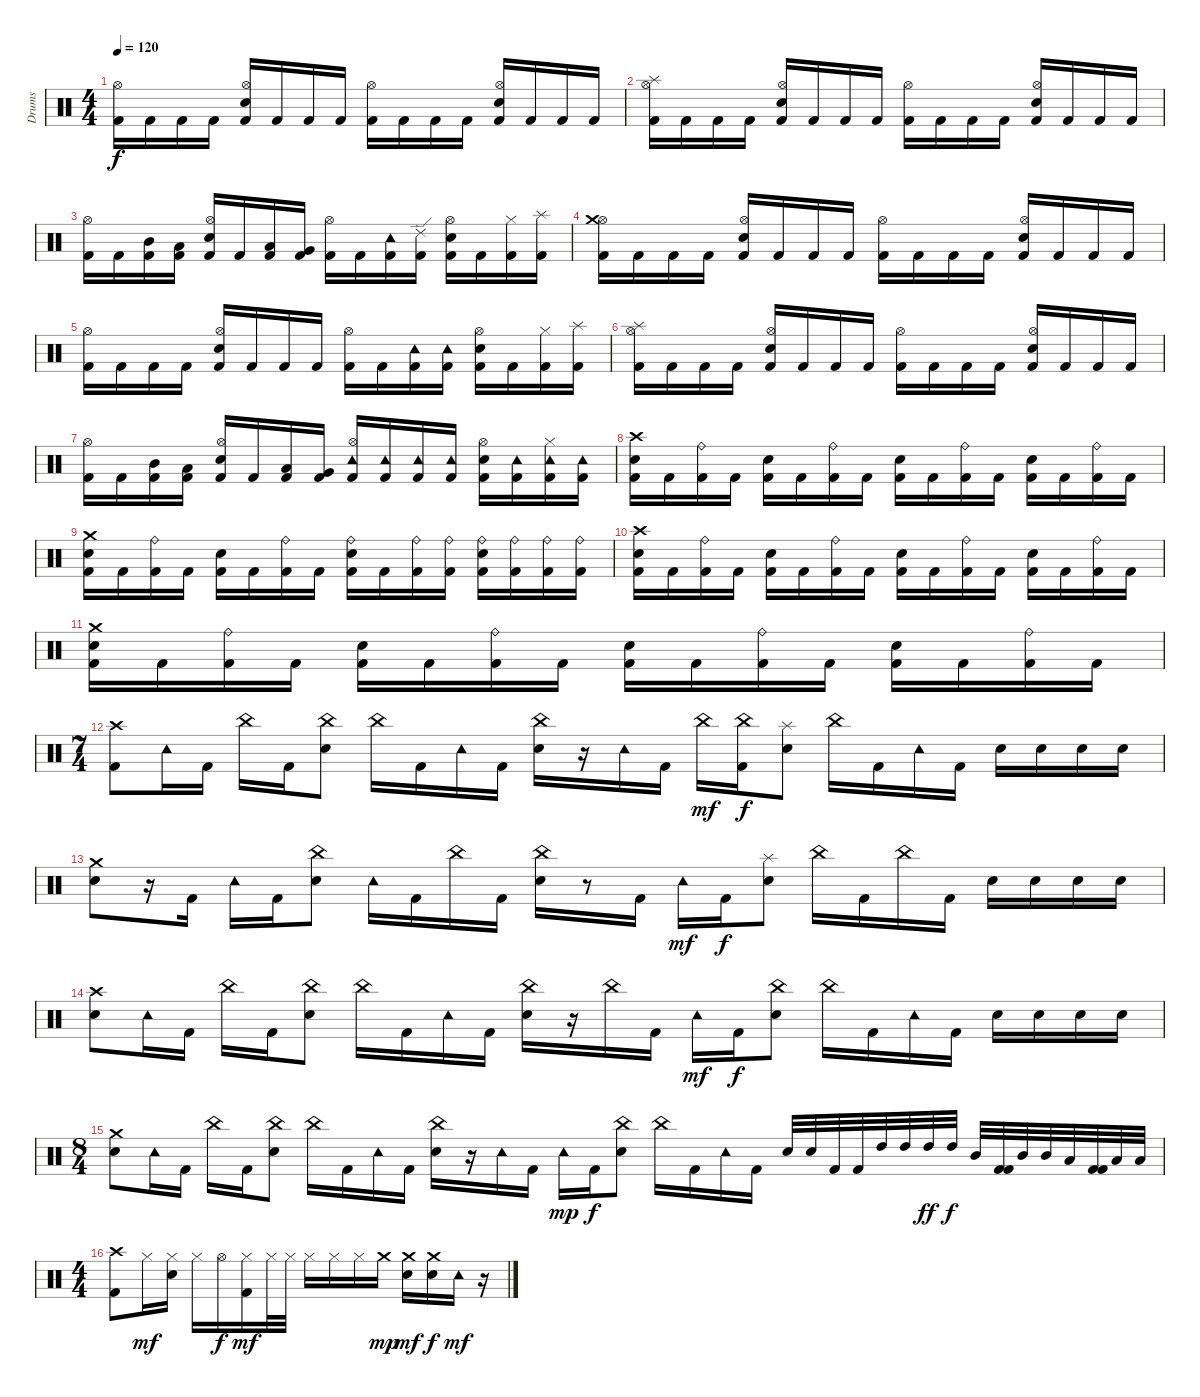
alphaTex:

\track ("Drums" "Drums") {instrument percussion}
\staff {score}
\articulation defaults
\ts (4 4)
\tempo 120
\clef neutral
\ks c
("Kick (hit) 2" "Hi-Hat (open)").16{dy f} "Kick (hit) 2".16 "Kick (hit) 2".16 "Kick (hit) 2".16 ("Kick (hit) 2" "Electric Snare (hit)" "Hi-Hat (open)").16 "Kick (hit) 2".16 "Kick (hit) 2".16 "Kick (hit) 2".16 ("Kick (hit) 2" "Hi-Hat (open)").16 "Kick (hit) 2".16 "Kick (hit) 2".16 "Kick (hit) 2".16 ("Kick (hit) 2" "Electric Snare (hit)" "Hi-Hat (open)").16 "Kick (hit) 2".16 "Kick (hit) 2".16 "Kick (hit) 2".16 |
("Kick (hit) 2" "Splash (hit)" "Hi-Hat (open)").16 "Kick (hit) 2".16 "Kick (hit) 2".16 "Kick (hit) 2".16 ("Kick (hit) 2" "Electric Snare (hit)" "Hi-Hat (open)").16 "Kick (hit) 2".16 "Kick (hit) 2".16 "Kick (hit) 2".16 ("Kick (hit) 2" "Hi-Hat (open)").16 "Kick (hit) 2".16 "Kick (hit) 2".16 "Kick (hit) 2".16 ("Kick (hit) 2" "Electric Snare (hit)" "Hi-Hat (open)").16 "Kick (hit) 2".16 "Kick (hit) 2".16 "Kick (hit) 2".16 |
("Kick (hit) 2" "Hi-Hat (open)").16 "Kick (hit) 2".16 ("Kick (hit) 2" "Mid Tom (hit)").16 ("Kick (hit) 2" "Low Tom (hit)").16 ("Kick (hit) 2" "Electric Snare (hit)" "Hi-Hat (open)").16 "Kick (hit) 2".16 ("Kick (hit) 2" "Low Tom (hit)").16 ("Kick (hit) 2" "Very Low Tom (hit)").16 ("Kick (hit) 2" "Hi-Hat (open)").16 "Kick (hit) 2".16 ("Kick (hit) 2" "Tambourine (hit)").16 ("Kick (hit) 2" "Ride (edge) 2").16 ("Kick (hit) 2" "Hi-Hat (open)" "Electric Snare (hit)").16 "Kick (hit) 2".16 ("Kick (hit) 2" "Hi-Hat (closed)").16 ("Kick (hit) 2" "Splash (hit)").16 |
("Kick (hit) 2" "Hi-Hat (open)" "Crash medium (hit)").16 "Kick (hit) 2".16 "Kick (hit) 2".16 "Kick (hit) 2".16 ("Kick (hit) 2" "Electric Snare (hit)" "Hi-Hat (open)").16 "Kick (hit) 2".16 "Kick (hit) 2".16 "Kick (hit) 2".16 ("Kick (hit) 2" "Hi-Hat (open)").16 "Kick (hit) 2".16 "Kick (hit) 2".16 "Kick (hit) 2".16 ("Kick (hit) 2" "Electric Snare (hit)" "Hi-Hat (open)").16 "Kick (hit) 2".16 "Kick (hit) 2".16 "Kick (hit) 2".16 |
("Kick (hit) 2" "Hi-Hat (open)").16 "Kick (hit) 2".16 "Kick (hit) 2".16 "Kick (hit) 2".16 ("Kick (hit) 2" "Electric Snare (hit)" "Hi-Hat (open)").16 "Kick (hit) 2".16 "Kick (hit) 2".16 "Kick (hit) 2".16 ("Hi-Hat (open)" "Kick (hit) 2").16 "Kick (hit) 2".16 ("Tambourine (hit)" "Kick (hit) 2").16 ("Kick (hit) 2" "Tambourine (hit)").16 ("Hi-Hat (open)" "Electric Snare (hit)" "Kick (hit) 2").16 "Kick (hit) 2".16 ("Hi-Hat (closed)" "Kick (hit) 2").16 ("Splash (hit)" "Kick (hit) 2").16 |
("Hi-Hat (open)" "Splash (hit)" "Kick (hit) 2").16 "Kick (hit) 2".16 "Kick (hit) 2".16 "Kick (hit) 2".16 ("Kick (hit) 2" "Electric Snare (hit)" "Hi-Hat (open)").16 "Kick (hit) 2".16 "Kick (hit) 2".16 "Kick (hit) 2".16 ("Kick (hit) 2" "Hi-Hat (open)").16 "Kick (hit) 2".16 "Kick (hit) 2".16 "Kick (hit) 2".16 ("Kick (hit) 2" "Electric Snare (hit)" "Hi-Hat (open)").16 "Kick (hit) 2".16 "Kick (hit) 2".16 "Kick (hit) 2".16 |
("Kick (hit) 2" "Hi-Hat (open)").16 "Kick (hit) 2".16 ("Kick (hit) 2" "Mid Tom (hit)").16 ("Kick (hit) 2" "Low Tom (hit)").16 ("Kick (hit) 2" "Electric Snare (hit)" "Hi-Hat (open)").16 "Kick (hit) 2".16 ("Kick (hit) 2" "Low Tom (hit)").16 ("Kick (hit) 2" "Very Low Tom (hit)").16 ("Kick (hit) 2" "Hi-Hat (open)" "Tambourine (hit)").16 ("Kick (hit) 2" "Tambourine (hit)").16 ("Kick (hit) 2" "Tambourine (hit)").16 ("Kick (hit) 2" "Tambourine (hit)").16 ("Kick (hit) 2" "Hi-Hat (open)" "Electric Snare (hit)").16 ("Kick (hit) 2" "Tambourine (hit)").16 ("Kick (hit) 2" "Hi-Hat (closed)" "Tambourine (hit)").16 ("Kick (hit) 2" "Tambourine (hit)").16 |
("Kick (hit) 2" "Electric Snare (hit)" "Crash high (hit)").16 "Kick (hit) 2".16 ("Kick (hit) 2" "Ride (bell)").16 "Kick (hit) 2".16 ("Kick (hit) 2" "Electric Snare (hit)").16 "Kick (hit) 2".16 ("Kick (hit) 2" "Ride (bell)").16 "Kick (hit) 2".16 ("Kick (hit) 2" "Electric Snare (hit)").16 "Kick (hit) 2".16 ("Kick (hit) 2" "Ride (bell)").16 "Kick (hit) 2".16 ("Kick (hit) 2" "Electric Snare (hit)").16 "Kick (hit) 2".16 ("Kick (hit) 2" "Ride (bell)").16 "Kick (hit) 2".16 |
("Kick (hit) 2" "Electric Snare (hit)" "Crash medium (hit)").16 "Kick (hit) 2".16 ("Kick (hit) 2" "Ride (bell)").16 "Kick (hit) 2".16 ("Kick (hit) 2" "Electric Snare (hit)").16 "Kick (hit) 2".16 ("Kick (hit) 2" "Ride (bell)").16 "Kick (hit) 2".16 ("Kick (hit) 2" "Electric Snare (hit)" "Ride (bell)").16 "Kick (hit) 2".16 ("Kick (hit) 2" "Ride (bell)").16 ("Kick (hit) 2" "Ride (bell)").16 ("Kick (hit) 2" "Electric Snare (hit)" "Ride (bell)").16 ("Kick (hit) 2" "Ride (bell)").16 ("Kick (hit) 2" "Ride (bell)").16 ("Kick (hit) 2" "Ride (bell)").16 |
("Crash high (hit)" "Electric Snare (hit)" "Kick (hit) 2").16 "Kick (hit) 2".16 ("Kick (hit) 2" "Ride (bell)").16 "Kick (hit) 2".16 ("Kick (hit) 2" "Electric Snare (hit)").16 "Kick (hit) 2".16 ("Kick (hit) 2" "Ride (bell)").16 "Kick (hit) 2".16 ("Kick (hit) 2" "Electric Snare (hit)").16 "Kick (hit) 2".16 ("Kick (hit) 2" "Ride (bell)").16 "Kick (hit) 2".16 ("Kick (hit) 2" "Electric Snare (hit)").16 "Kick (hit) 2".16 ("Kick (hit) 2" "Ride (bell)").16 "Kick (hit) 2".16 |
("Kick (hit) 2" "Electric Snare (hit)" "Crash medium (hit)").16 "Kick (hit) 2".16 ("Kick (hit) 2" "Ride (bell)").16 "Kick (hit) 2".16 ("Kick (hit) 2" "Electric Snare (hit)").16 "Kick (hit) 2".16 ("Kick (hit) 2" "Ride (bell)").16 "Kick (hit) 2".16 ("Kick (hit) 2" "Electric Snare (hit)").16 "Kick (hit) 2".16 ("Kick (hit) 2" "Ride (bell)").16 "Kick (hit) 2".16 ("Kick (hit) 2" "Electric Snare (hit)").16 "Kick (hit) 2".16 ("Kick (hit) 2" "Ride (bell)").16 "Kick (hit) 2".16 |
\ts (7 4)
("Crash high (hit)" "Kick (hit) 2").8 "Tambourine (hit)".16 "Kick (hit) 2".16 "China (hit)".16 "Kick (hit) 2".16 ("Electric Snare (hit)" "China (hit)").8 "China (hit)".16 "Kick (hit) 2".16 "Tambourine (hit)".16 "Kick (hit) 2".16 ("Electric Snare (hit)" "China (hit)").16 r.16 "Tambourine (hit)".16 "Kick (hit) 2".16 "China (hit)".16{dy mf} ("Kick (hit) 2" "China (hit)").16{dy f} ("Electric Snare (hit)" "Splash (hit)").8 "China (hit)".16 "Kick (hit) 2".16 "Tambourine (hit)".16 "Kick (hit) 2".16 "Electric Snare (hit)".16 "Electric Snare (hit)".16 "Electric Snare (hit)".16 "Electric Snare (hit)".16 |
("Electric Snare (hit)" "Crash medium (hit)").8 r.16 "Kick (hit) 2".16 "Tambourine (hit)".16 "Kick (hit) 2".16 ("Electric Snare (hit)" "China (hit)").8 "Tambourine (hit)".16 "Kick (hit) 2".16 "China (hit)".16 "Kick (hit) 2".16 ("Electric Snare (hit)" "China (hit)").16 r.8 "Kick (hit) 2".16 "Tambourine (hit)".16{dy mf} "Kick (hit) 2".16{dy f} ("Electric Snare (hit)" "Splash (hit)").8 "China (hit)".16 "Kick (hit) 2".16 "China (hit)".16 "Kick (hit) 2".16 "Electric Snare (hit)".16 "Electric Snare (hit)".16 "Electric Snare (hit)".16 "Electric Snare (hit)".16 |
("Crash high (hit)" "Electric Snare (hit)").8 "Tambourine (hit)".16 "Kick (hit) 2".16 "China (hit)".16 "Kick (hit) 2".16 ("Electric Snare (hit)" "China (hit)").8 "China (hit)".16 "Kick (hit) 2".16 "Tambourine (hit)".16 "Kick (hit) 2".16 ("Electric Snare (hit)" "China (hit)").16 r.16 "China (hit)".16 "Kick (hit) 2".16 "Tambourine (hit)".16{dy mf} "Kick (hit) 2".16{dy f} ("Electric Snare (hit)" "China (hit)").8 "China (hit)".16 "Kick (hit) 2".16 "Tambourine (hit)".16 "Kick (hit) 2".16 "Electric Snare (hit)".16 "Electric Snare (hit)".16 "Electric Snare (hit)".16 "Electric Snare (hit)".16 |
\ts (8 4)
("Crash medium (hit)" "Electric Snare (hit)").8 "Tambourine (hit)".16 "Kick (hit) 2".16 "China (hit)".16 "Kick (hit) 2".16 ("Electric Snare (hit)" "China (hit)").8 "China (hit)".16 "Kick (hit) 2".16 "Tambourine (hit)".16 "Kick (hit) 2".16 ("Electric Snare (hit)" "China (hit)").16 r.16 "Tambourine (hit)".16 "Kick (hit) 2".16 "Tambourine (hit)".16{dy mp} "Kick (hit) 2".16{dy f} ("China (hit)" "Electric Snare (hit)").8 "China (hit)".16 "Kick (hit) 2".16 "Tambourine (hit)".16 "Kick (hit) 2".16 "Electric Snare (hit)".32 "Electric Snare (hit)".32 "Kick (hit) 2".32 "Kick (hit) 2".32 "High Tom (hit)".32 "High Tom (hit)".32 "High Tom (hit)".32{dy ff} "High Tom (hit)".32{dy f} "Mid Tom (hit)".32 ("Kick (hit) 2" "Kick (hit) 2").32 "Mid Tom (hit)".32 "Mid Tom (hit)".32 "Low Tom (hit)".32 ("Kick (hit) 2" "Kick (hit) 2").32 "Low Tom (hit)".32 "Low Tom (hit)".32 |
\ts (4 4)
("Crash high (hit)" "Kick (hit) 2").8 "Hi-Hat (closed)".16{dy mf} ("Electric Snare (hit)" "Hi-Hat (closed)").16 "Hi-Hat (closed)".16 "Hi-Hat (open)".16{dy f} ("Kick (hit) 2" "Hi-Hat (closed)").16{dy mf} "Hi-Hat (closed)".32 "Hi-Hat (closed)".32 "Hi-Hat (closed)".16 "Hi-Hat (closed)".16 "Hi-Hat (closed)".16 "Crash medium (hit)".16{dy mp} ("Electric Snare (hit)" "Crash medium (hit)").16{dy mf} ("Electric Snare (hit)" "Crash medium (hit)").16{dy f} "Tambourine (hit)".16{dy mf} r.16
